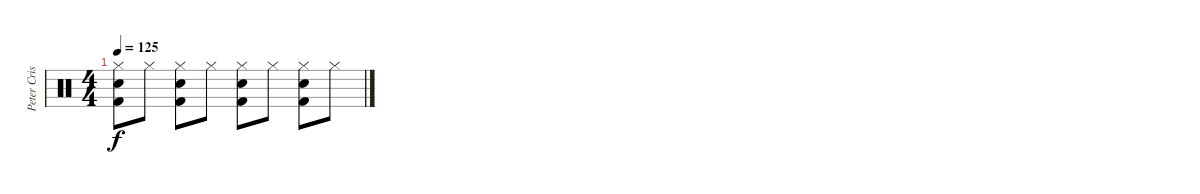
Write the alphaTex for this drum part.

\track ("Peter Criss" "Peter Cris") {instrument percussion}
\staff {score}
\articulation defaults
\ts (4 4)
\tempo 125
\clef neutral
\ks c
("Hi-Hat (closed)" "Electric Snare (hit)" "Kick (hit) 2").8{dy f} "Hi-Hat (closed)".8 ("Hi-Hat (closed)" "Electric Snare (hit)" "Kick (hit) 2").8 "Hi-Hat (closed)".8 ("Hi-Hat (closed)" "Electric Snare (hit)" "Kick (hit) 2").8 "Hi-Hat (closed)".8 ("Hi-Hat (closed)" "Electric Snare (hit)" "Kick (hit) 2").8 "Hi-Hat (closed)".8
